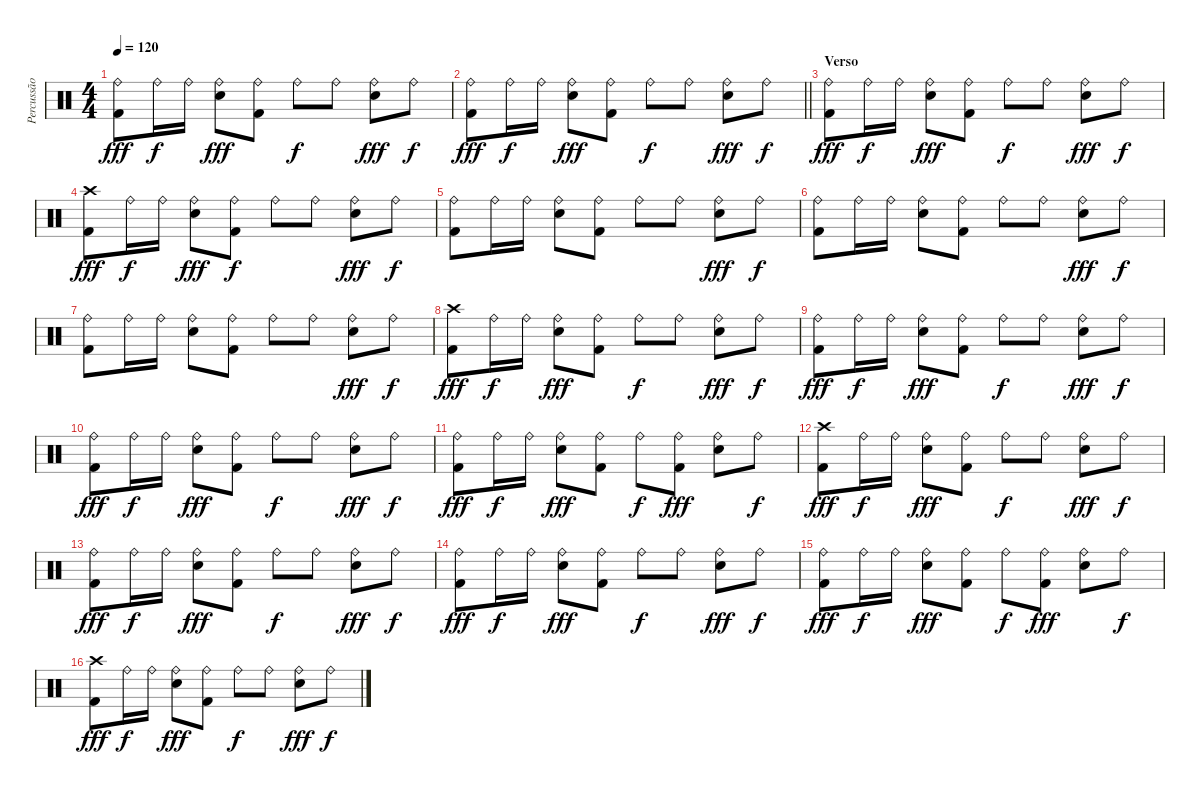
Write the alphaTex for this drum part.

\track ("Percussão" "Percussão") {instrument percussion}
\staff {score}
\articulation defaults
\ts (4 4)
\tempo 120
\clef neutral
\ks c
("Ride (bell)" "Kick (hit) 2").8{dy fff} "Ride (bell)".16{dy f} "Ride (bell)".16 ("Ride (bell)" "Electric Snare (hit)").8{dy fff} ("Ride (bell)" "Kick (hit) 2").8 "Ride (bell)".8{dy f} "Ride (bell)".8 ("Ride (bell)" "Electric Snare (hit)").8{dy fff} "Ride (bell)".8{dy f} |
\barLineRight lightlight
("Ride (bell)" "Kick (hit) 2").8{dy fff} "Ride (bell)".16{dy f} "Ride (bell)".16 ("Ride (bell)" "Electric Snare (hit)").8{dy fff} ("Ride (bell)" "Kick (hit) 2").8 "Ride (bell)".8{dy f} "Ride (bell)".8 ("Ride (bell)" "Electric Snare (hit)").8{dy fff} "Ride (bell)".8{dy f} |
\section ("" "Verso")
("Ride (bell)" "Kick (hit) 2").8{dy fff} "Ride (bell)".16{dy f} "Ride (bell)".16 ("Ride (bell)" "Electric Snare (hit)").8{dy fff} ("Ride (bell)" "Kick (hit) 2").8 "Ride (bell)".8{dy f} "Ride (bell)".8 ("Ride (bell)" "Electric Snare (hit)").8{dy fff} "Ride (bell)".8{dy f} |
("Crash high (hit)" "Kick (hit) 2").8{dy fff} "Ride (bell)".16{dy f} "Ride (bell)".16 ("Ride (bell)" "Electric Snare (hit)").8{dy fff} ("Ride (bell)" "Kick (hit) 2").8{dy f} "Ride (bell)".8 "Ride (bell)".8 ("Ride (bell)" "Electric Snare (hit)").8{dy fff} "Ride (bell)".8{dy f} |
("Ride (bell)" "Kick (hit) 2").8 "Ride (bell)".16 "Ride (bell)".16 ("Ride (bell)" "Electric Snare (hit)").8 ("Ride (bell)" "Kick (hit) 2").8 "Ride (bell)".8 "Ride (bell)".8 ("Ride (bell)" "Electric Snare (hit)").8{dy fff} "Ride (bell)".8{dy f} |
("Ride (bell)" "Kick (hit) 2").8 "Ride (bell)".16 "Ride (bell)".16 ("Ride (bell)" "Electric Snare (hit)").8 ("Ride (bell)" "Kick (hit) 2").8 "Ride (bell)".8 "Ride (bell)".8 ("Ride (bell)" "Electric Snare (hit)").8{dy fff} "Ride (bell)".8{dy f} |
("Ride (bell)" "Kick (hit) 2").8 "Ride (bell)".16 "Ride (bell)".16 ("Ride (bell)" "Electric Snare (hit)").8 ("Ride (bell)" "Kick (hit) 2").8 "Ride (bell)".8 "Ride (bell)".8 ("Ride (bell)" "Electric Snare (hit)").8{dy fff} "Ride (bell)".8{dy f} |
("Crash high (hit)" "Kick (hit) 2").8{dy fff} "Ride (bell)".16{dy f} "Ride (bell)".16 ("Ride (bell)" "Electric Snare (hit)").8{dy fff} ("Ride (bell)" "Kick (hit) 2").8 "Ride (bell)".8{dy f} "Ride (bell)".8 ("Ride (bell)" "Electric Snare (hit)").8{dy fff} "Ride (bell)".8{dy f} |
("Ride (bell)" "Kick (hit) 2").8{dy fff} "Ride (bell)".16{dy f} "Ride (bell)".16 ("Ride (bell)" "Electric Snare (hit)").8{dy fff} ("Ride (bell)" "Kick (hit) 2").8 "Ride (bell)".8{dy f} "Ride (bell)".8 ("Ride (bell)" "Electric Snare (hit)").8{dy fff} "Ride (bell)".8{dy f} |
("Ride (bell)" "Kick (hit) 2").8{dy fff} "Ride (bell)".16{dy f} "Ride (bell)".16 ("Ride (bell)" "Electric Snare (hit)").8{dy fff} ("Ride (bell)" "Kick (hit) 2").8 "Ride (bell)".8{dy f} "Ride (bell)".8 ("Ride (bell)" "Electric Snare (hit)").8{dy fff} "Ride (bell)".8{dy f} |
("Ride (bell)" "Kick (hit) 2").8{dy fff} "Ride (bell)".16{dy f} "Ride (bell)".16 ("Ride (bell)" "Electric Snare (hit)").8{dy fff} ("Ride (bell)" "Kick (hit) 2").8 "Ride (bell)".8{dy f} ("Ride (bell)" "Kick (hit) 2").8{dy fff} ("Ride (bell)" "Electric Snare (hit)").8 "Ride (bell)".8{dy f} |
("Crash high (hit)" "Kick (hit) 2").8{dy fff} "Ride (bell)".16{dy f} "Ride (bell)".16 ("Ride (bell)" "Electric Snare (hit)").8{dy fff} ("Ride (bell)" "Kick (hit) 2").8 "Ride (bell)".8{dy f} "Ride (bell)".8 ("Ride (bell)" "Electric Snare (hit)").8{dy fff} "Ride (bell)".8{dy f} |
("Ride (bell)" "Kick (hit) 2").8{dy fff} "Ride (bell)".16{dy f} "Ride (bell)".16 ("Ride (bell)" "Electric Snare (hit)").8{dy fff} ("Ride (bell)" "Kick (hit) 2").8 "Ride (bell)".8{dy f} "Ride (bell)".8 ("Ride (bell)" "Electric Snare (hit)").8{dy fff} "Ride (bell)".8{dy f} |
("Ride (bell)" "Kick (hit) 2").8{dy fff} "Ride (bell)".16{dy f} "Ride (bell)".16 ("Ride (bell)" "Electric Snare (hit)").8{dy fff} ("Ride (bell)" "Kick (hit) 2").8 "Ride (bell)".8{dy f} "Ride (bell)".8 ("Ride (bell)" "Electric Snare (hit)").8{dy fff} "Ride (bell)".8{dy f} |
("Ride (bell)" "Kick (hit) 2").8{dy fff} "Ride (bell)".16{dy f} "Ride (bell)".16 ("Ride (bell)" "Electric Snare (hit)").8{dy fff} ("Ride (bell)" "Kick (hit) 2").8 "Ride (bell)".8{dy f} ("Ride (bell)" "Kick (hit) 2").8{dy fff} ("Ride (bell)" "Electric Snare (hit)").8 "Ride (bell)".8{dy f} |
("Crash high (hit)" "Kick (hit) 2").8{dy fff} "Ride (bell)".16{dy f} "Ride (bell)".16 ("Ride (bell)" "Electric Snare (hit)").8{dy fff} ("Ride (bell)" "Kick (hit) 2").8 "Ride (bell)".8{dy f} "Ride (bell)".8 ("Ride (bell)" "Electric Snare (hit)").8{dy fff} "Ride (bell)".8{dy f}
